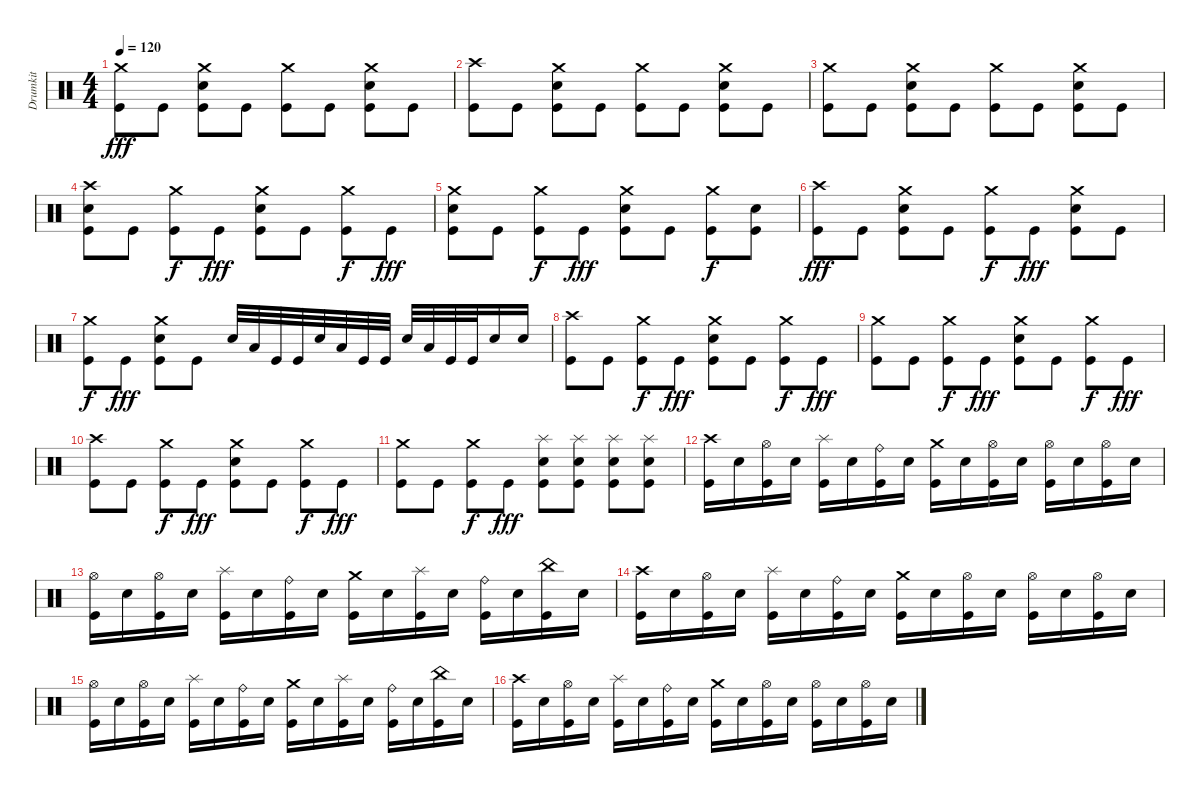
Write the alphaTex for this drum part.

\track ("Drumkit" "Drumkit") {instrument percussion}
\staff {score}
\articulation defaults
\ts (4 4)
\tempo 120
\clef neutral
\ks c
("Crash medium (hit)" "Kick (hit)").8{dy fff} "Kick (hit)".8 ("Crash medium (hit)" "Snare (hit) 2" "Kick (hit)").8 "Kick (hit)".8 ("Crash medium (hit)" "Kick (hit)").8 "Kick (hit)".8 ("Crash medium (hit)" "Snare (hit) 2" "Kick (hit)").8 "Kick (hit)".8 |
("Crash high (hit)" "Kick (hit)").8 "Kick (hit)".8 ("Crash medium (hit)" "Snare (hit) 2" "Kick (hit)").8 "Kick (hit)".8 ("Crash medium (hit)" "Kick (hit)").8 "Kick (hit)".8 ("Crash medium (hit)" "Snare (hit) 2" "Kick (hit)").8 "Kick (hit)".8 |
("Crash medium (hit)" "Kick (hit)").8 "Kick (hit)".8 ("Crash medium (hit)" "Snare (hit) 2" "Kick (hit)").8 "Kick (hit)".8 ("Crash medium (hit)" "Kick (hit)").8 "Kick (hit)".8 ("Crash medium (hit)" "Snare (hit) 2" "Kick (hit)").8 "Kick (hit)".8 |
("Crash high (hit)" "Snare (hit) 2" "Kick (hit)").8 "Kick (hit)".8 ("Crash medium (hit)" "Kick (hit)").8{dy f} "Kick (hit)".8{dy fff} ("Crash medium (hit)" "Snare (hit) 2" "Kick (hit)").8 "Kick (hit)".8 ("Crash medium (hit)" "Kick (hit)").8{dy f} "Kick (hit)".8{dy fff} |
("Crash medium (hit)" "Snare (hit) 2" "Kick (hit)").8 "Kick (hit)".8 ("Crash medium (hit)" "Kick (hit)").8{dy f} "Kick (hit)".8{dy fff} ("Crash medium (hit)" "Snare (hit) 2" "Kick (hit)").8 "Kick (hit)".8 ("Crash medium (hit)" "Kick (hit)").8{dy f} ("Snare (hit) 2" "Kick (hit)").8 |
("Crash high (hit)" "Kick (hit)").8{dy fff} "Kick (hit)".8 ("Crash medium (hit)" "Snare (hit) 2" "Kick (hit)").8 "Kick (hit)".8 ("Crash medium (hit)" "Kick (hit)").8{dy f} "Kick (hit)".8{dy fff} ("Crash medium (hit)" "Snare (hit) 2" "Kick (hit)").8 "Kick (hit)".8 |
("Crash medium (hit)" "Kick (hit)").8{dy f} "Kick (hit)".8{dy fff} ("Crash medium (hit)" "Snare (hit) 2" "Kick (hit)").8 "Kick (hit)".8 "Snare (hit) 2".32 "Low Tom (hit)".32 "Kick (hit)".32 "Kick (hit)".32 "Snare (hit) 2".32 "Low Tom (hit)".32 "Kick (hit)".32 "Kick (hit)".32 "Snare (hit) 2".32 "Low Tom (hit)".32 "Kick (hit)".32 "Kick (hit)".32 "Snare (hit) 2".16 "Snare (hit) 2".16 |
("Crash high (hit)" "Kick (hit)").8 "Kick (hit)".8 ("Crash medium (hit)" "Kick (hit)").8{dy f} "Kick (hit)".8{dy fff} ("Crash medium (hit)" "Snare (hit) 2" "Kick (hit)").8 "Kick (hit)".8 ("Crash medium (hit)" "Kick (hit)").8{dy f} "Kick (hit)".8{dy fff} |
("Crash medium (hit)" "Kick (hit)").8 "Kick (hit)".8 ("Crash medium (hit)" "Kick (hit)").8{dy f} "Kick (hit)".8{dy fff} ("Crash medium (hit)" "Snare (hit) 2" "Kick (hit)").8 "Kick (hit)".8 ("Crash medium (hit)" "Kick (hit)").8{dy f} "Kick (hit)".8{dy fff} |
("Crash high (hit)" "Kick (hit)").8 "Kick (hit)".8 ("Crash medium (hit)" "Kick (hit)").8{dy f} "Kick (hit)".8{dy fff} ("Crash medium (hit)" "Snare (hit) 2" "Kick (hit)").8 "Kick (hit)".8 ("Crash medium (hit)" "Kick (hit)").8{dy f} "Kick (hit)".8{dy fff} |
("Crash medium (hit)" "Kick (hit)").8 "Kick (hit)".8 ("Crash medium (hit)" "Kick (hit)").8{dy f} "Kick (hit)".8{dy fff} ("Splash (hit)" "Snare (hit) 2" "Kick (hit)").8 ("Splash (hit)" "Snare (hit) 2" "Kick (hit)").8 ("Splash (hit)" "Snare (hit) 2" "Kick (hit)").8 ("Splash (hit)" "Snare (hit) 2" "Kick (hit)").8 |
("Crash high (hit)" "Kick (hit)").16 "Snare (hit) 2".16 ("Hi-Hat (open)" "Kick (hit)").16 "Snare (hit) 2".16 ("Splash (hit)" "Kick (hit)").16 "Snare (hit) 2".16 ("Ride (bell)" "Kick (hit)").16 "Snare (hit) 2".16 ("Crash medium (hit)" "Kick (hit)").16 "Snare (hit) 2".16 ("Hi-Hat (open)" "Kick (hit)").16 "Snare (hit) 2".16 ("Hi-Hat (open)" "Kick (hit)").16 "Snare (hit) 2".16 ("Hi-Hat (open)" "Kick (hit)").16 "Snare (hit) 2".16 |
("Hi-Hat (open)" "Kick (hit)").16 "Snare (hit) 2".16 ("Hi-Hat (open)" "Kick (hit)").16 "Snare (hit) 2".16 ("Splash (hit)" "Kick (hit)").16 "Snare (hit) 2".16 ("Ride (bell)" "Kick (hit)").16 "Snare (hit) 2".16 ("Crash medium (hit)" "Kick (hit)").16 "Snare (hit) 2".16 ("Splash (hit)" "Kick (hit)").16 "Snare (hit) 2".16 ("Ride (bell)" "Kick (hit)").16 "Snare (hit) 2".16 ("China (hit)" "Kick (hit)").16 "Snare (hit) 2".16 |
("Crash high (hit)" "Kick (hit)").16 "Snare (hit) 2".16 ("Hi-Hat (open)" "Kick (hit)").16 "Snare (hit) 2".16 ("Splash (hit)" "Kick (hit)").16 "Snare (hit) 2".16 ("Ride (bell)" "Kick (hit)").16 "Snare (hit) 2".16 ("Crash medium (hit)" "Kick (hit)").16 "Snare (hit) 2".16 ("Hi-Hat (open)" "Kick (hit)").16 "Snare (hit) 2".16 ("Hi-Hat (open)" "Kick (hit)").16 "Snare (hit) 2".16 ("Hi-Hat (open)" "Kick (hit)").16 "Snare (hit) 2".16 |
("Hi-Hat (open)" "Kick (hit)").16 "Snare (hit) 2".16 ("Hi-Hat (open)" "Kick (hit)").16 "Snare (hit) 2".16 ("Splash (hit)" "Kick (hit)").16 "Snare (hit) 2".16 ("Ride (bell)" "Kick (hit)").16 "Snare (hit) 2".16 ("Crash medium (hit)" "Kick (hit)").16 "Snare (hit) 2".16 ("Splash (hit)" "Kick (hit)").16 "Snare (hit) 2".16 ("Ride (bell)" "Kick (hit)").16 "Snare (hit) 2".16 ("China (hit)" "Kick (hit)").16 "Snare (hit) 2".16 |
("Crash high (hit)" "Kick (hit)").16 "Snare (hit) 2".16 ("Hi-Hat (open)" "Kick (hit)").16 "Snare (hit) 2".16 ("Splash (hit)" "Kick (hit)").16 "Snare (hit) 2".16 ("Ride (bell)" "Kick (hit)").16 "Snare (hit) 2".16 ("Crash medium (hit)" "Kick (hit)").16 "Snare (hit) 2".16 ("Hi-Hat (open)" "Kick (hit)").16 "Snare (hit) 2".16 ("Hi-Hat (open)" "Kick (hit)").16 "Snare (hit) 2".16 ("Hi-Hat (open)" "Kick (hit)").16 "Snare (hit) 2".16
